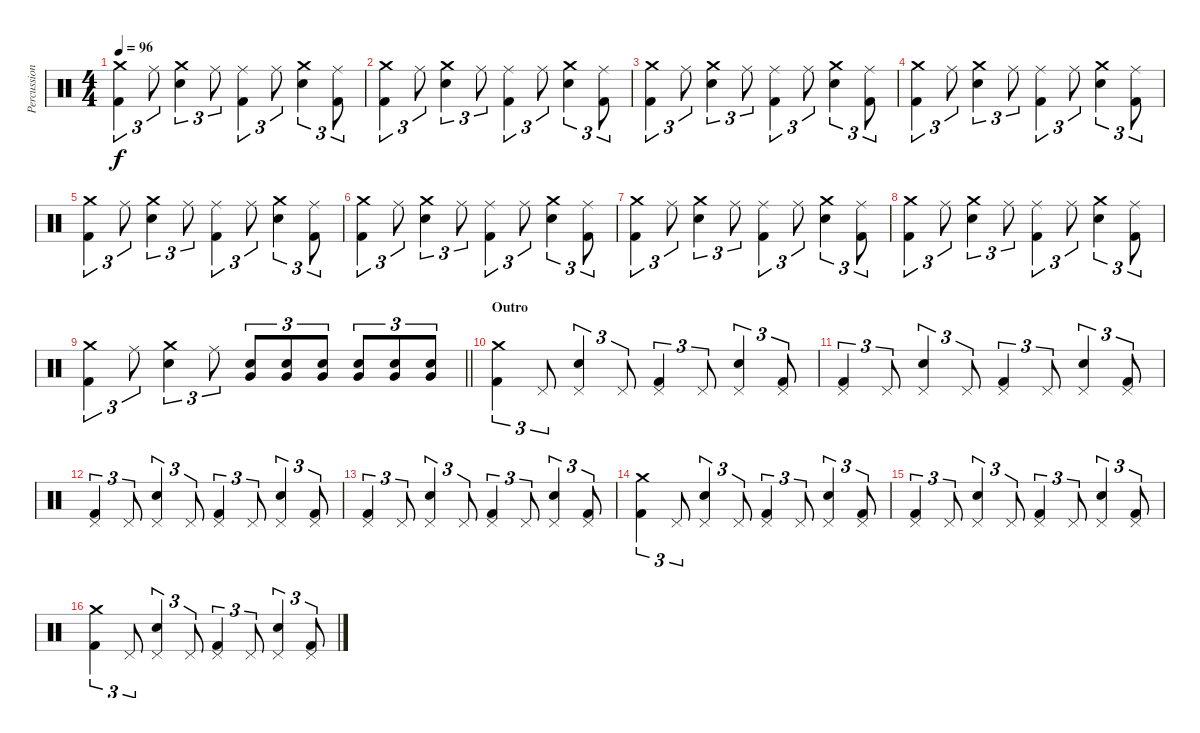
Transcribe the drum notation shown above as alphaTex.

\track ("Percussioni" "Percussion") {instrument percussion}
\staff {score}
\articulation defaults
\ts (4 4)
\tempo 96
\clef neutral
\ks c
("Kick (hit) 2" "Crash medium (hit)").4{tu (3 2) dy f} "Ride (middle)".8{tu (3 2)} ("Electric Snare (hit)" "Crash medium (hit)").4{tu (3 2)} "Ride (middle)".8{tu (3 2)} ("Kick (hit) 2" "Ride (middle)").4{tu (3 2)} "Ride (middle)".8{tu (3 2)} ("Electric Snare (hit)" "Crash medium (hit)").4{tu (3 2)} ("Kick (hit) 2" "Ride (middle)").8{tu (3 2)} |
("Kick (hit) 2" "Crash medium (hit)").4{tu (3 2)} "Ride (middle)".8{tu (3 2)} ("Electric Snare (hit)" "Crash medium (hit)").4{tu (3 2)} "Ride (middle)".8{tu (3 2)} ("Kick (hit) 2" "Ride (middle)").4{tu (3 2)} "Ride (middle)".8{tu (3 2)} ("Electric Snare (hit)" "Crash medium (hit)").4{tu (3 2)} ("Kick (hit) 2" "Ride (middle)").8{tu (3 2)} |
("Kick (hit) 2" "Crash medium (hit)").4{tu (3 2)} "Ride (middle)".8{tu (3 2)} ("Electric Snare (hit)" "Crash medium (hit)").4{tu (3 2)} "Ride (middle)".8{tu (3 2)} ("Kick (hit) 2" "Ride (middle)").4{tu (3 2)} "Ride (middle)".8{tu (3 2)} ("Electric Snare (hit)" "Crash medium (hit)").4{tu (3 2)} ("Kick (hit) 2" "Ride (middle)").8{tu (3 2)} |
("Kick (hit) 2" "Crash medium (hit)").4{tu (3 2)} "Ride (middle)".8{tu (3 2)} ("Electric Snare (hit)" "Crash medium (hit)").4{tu (3 2)} "Ride (middle)".8{tu (3 2)} ("Kick (hit) 2" "Ride (middle)").4{tu (3 2)} "Ride (middle)".8{tu (3 2)} ("Electric Snare (hit)" "Crash medium (hit)").4{tu (3 2)} ("Kick (hit) 2" "Ride (middle)").8{tu (3 2)} |
("Kick (hit) 2" "Crash medium (hit)").4{tu (3 2)} "Ride (middle)".8{tu (3 2)} ("Electric Snare (hit)" "Crash medium (hit)").4{tu (3 2)} "Ride (middle)".8{tu (3 2)} ("Kick (hit) 2" "Ride (middle)").4{tu (3 2)} "Ride (middle)".8{tu (3 2)} ("Electric Snare (hit)" "Crash medium (hit)").4{tu (3 2)} ("Kick (hit) 2" "Ride (middle)").8{tu (3 2)} |
("Kick (hit) 2" "Crash medium (hit)").4{tu (3 2)} "Ride (middle)".8{tu (3 2)} ("Electric Snare (hit)" "Crash medium (hit)").4{tu (3 2)} "Ride (middle)".8{tu (3 2)} ("Kick (hit) 2" "Ride (middle)").4{tu (3 2)} "Ride (middle)".8{tu (3 2)} ("Electric Snare (hit)" "Crash medium (hit)").4{tu (3 2)} ("Kick (hit) 2" "Ride (middle)").8{tu (3 2)} |
("Kick (hit) 2" "Crash medium (hit)").4{tu (3 2)} "Ride (middle)".8{tu (3 2)} ("Electric Snare (hit)" "Crash medium (hit)").4{tu (3 2)} "Ride (middle)".8{tu (3 2)} ("Kick (hit) 2" "Ride (middle)").4{tu (3 2)} "Ride (middle)".8{tu (3 2)} ("Electric Snare (hit)" "Crash medium (hit)").4{tu (3 2)} ("Kick (hit) 2" "Ride (middle)").8{tu (3 2)} |
("Kick (hit) 2" "Crash medium (hit)").4{tu (3 2)} "Ride (middle)".8{tu (3 2)} ("Electric Snare (hit)" "Crash medium (hit)").4{tu (3 2)} "Ride (middle)".8{tu (3 2)} ("Kick (hit) 2" "Ride (middle)").4{tu (3 2)} "Ride (middle)".8{tu (3 2)} ("Electric Snare (hit)" "Crash medium (hit)").4{tu (3 2)} ("Kick (hit) 2" "Ride (middle)").8{tu (3 2)} |
\barLineRight lightlight
("Kick (hit) 2" "Crash medium (hit)").4{tu (3 2)} "Ride (middle)".8{tu (3 2)} ("Electric Snare (hit)" "Crash medium (hit)").4{tu (3 2)} "Ride (middle)".8{tu (3 2)} ("Electric Snare (hit)" "Very Low Tom (hit)").8{tu (3 2)} ("Electric Snare (hit)" "Very Low Tom (hit)").8{tu (3 2)} ("Electric Snare (hit)" "Very Low Tom (hit)").8{tu (3 2)} ("Electric Snare (hit)" "Very Low Tom (hit)").8{tu (3 2)} ("Electric Snare (hit)" "Very Low Tom (hit)").8{tu (3 2)} ("Electric Snare (hit)" "Very Low Tom (hit)").8{tu (3 2)} |
\section ("" "Outro")
("Kick (hit) 2" "Crash medium (hit)").4{tu (3 2)} "Pedal Hi-Hat (hit)".8{tu (3 2)} ("Electric Snare (hit)" "Pedal Hi-Hat (hit)").4{tu (3 2)} "Pedal Hi-Hat (hit)".8{tu (3 2)} ("Kick (hit) 2" "Pedal Hi-Hat (hit)").4{tu (3 2)} "Pedal Hi-Hat (hit)".8{tu (3 2)} ("Electric Snare (hit)" "Pedal Hi-Hat (hit)").4{tu (3 2)} ("Kick (hit) 2" "Pedal Hi-Hat (hit)").8{tu (3 2)} |
("Kick (hit) 2" "Pedal Hi-Hat (hit)").4{tu (3 2)} "Pedal Hi-Hat (hit)".8{tu (3 2)} ("Electric Snare (hit)" "Pedal Hi-Hat (hit)").4{tu (3 2)} "Pedal Hi-Hat (hit)".8{tu (3 2)} ("Kick (hit) 2" "Pedal Hi-Hat (hit)").4{tu (3 2)} "Pedal Hi-Hat (hit)".8{tu (3 2)} ("Electric Snare (hit)" "Pedal Hi-Hat (hit)").4{tu (3 2)} ("Kick (hit) 2" "Pedal Hi-Hat (hit)").8{tu (3 2)} |
("Kick (hit) 2" "Pedal Hi-Hat (hit)").4{tu (3 2)} "Pedal Hi-Hat (hit)".8{tu (3 2)} ("Electric Snare (hit)" "Pedal Hi-Hat (hit)").4{tu (3 2)} "Pedal Hi-Hat (hit)".8{tu (3 2)} ("Kick (hit) 2" "Pedal Hi-Hat (hit)").4{tu (3 2)} "Pedal Hi-Hat (hit)".8{tu (3 2)} ("Electric Snare (hit)" "Pedal Hi-Hat (hit)").4{tu (3 2)} ("Kick (hit) 2" "Pedal Hi-Hat (hit)").8{tu (3 2)} |
("Kick (hit) 2" "Pedal Hi-Hat (hit)").4{tu (3 2)} "Pedal Hi-Hat (hit)".8{tu (3 2)} ("Electric Snare (hit)" "Pedal Hi-Hat (hit)").4{tu (3 2)} "Pedal Hi-Hat (hit)".8{tu (3 2)} ("Kick (hit) 2" "Pedal Hi-Hat (hit)").4{tu (3 2)} "Pedal Hi-Hat (hit)".8{tu (3 2)} ("Electric Snare (hit)" "Pedal Hi-Hat (hit)").4{tu (3 2)} ("Kick (hit) 2" "Pedal Hi-Hat (hit)").8{tu (3 2)} |
("Kick (hit) 2" "Crash medium (hit)").4{tu (3 2)} "Pedal Hi-Hat (hit)".8{tu (3 2)} ("Electric Snare (hit)" "Pedal Hi-Hat (hit)").4{tu (3 2)} "Pedal Hi-Hat (hit)".8{tu (3 2)} ("Kick (hit) 2" "Pedal Hi-Hat (hit)").4{tu (3 2)} "Pedal Hi-Hat (hit)".8{tu (3 2)} ("Electric Snare (hit)" "Pedal Hi-Hat (hit)").4{tu (3 2)} ("Kick (hit) 2" "Pedal Hi-Hat (hit)").8{tu (3 2)} |
("Kick (hit) 2" "Pedal Hi-Hat (hit)").4{tu (3 2)} "Pedal Hi-Hat (hit)".8{tu (3 2)} ("Electric Snare (hit)" "Pedal Hi-Hat (hit)").4{tu (3 2)} "Pedal Hi-Hat (hit)".8{tu (3 2)} ("Kick (hit) 2" "Pedal Hi-Hat (hit)").4{tu (3 2)} "Pedal Hi-Hat (hit)".8{tu (3 2)} ("Electric Snare (hit)" "Pedal Hi-Hat (hit)").4{tu (3 2)} ("Kick (hit) 2" "Pedal Hi-Hat (hit)").8{tu (3 2)} |
("Kick (hit) 2" "Crash medium (hit)").4{tu (3 2)} "Pedal Hi-Hat (hit)".8{tu (3 2)} ("Electric Snare (hit)" "Pedal Hi-Hat (hit)").4{tu (3 2)} "Pedal Hi-Hat (hit)".8{tu (3 2)} ("Kick (hit) 2" "Pedal Hi-Hat (hit)").4{tu (3 2)} "Pedal Hi-Hat (hit)".8{tu (3 2)} ("Electric Snare (hit)" "Pedal Hi-Hat (hit)").4{tu (3 2)} ("Kick (hit) 2" "Pedal Hi-Hat (hit)").8{tu (3 2)}
